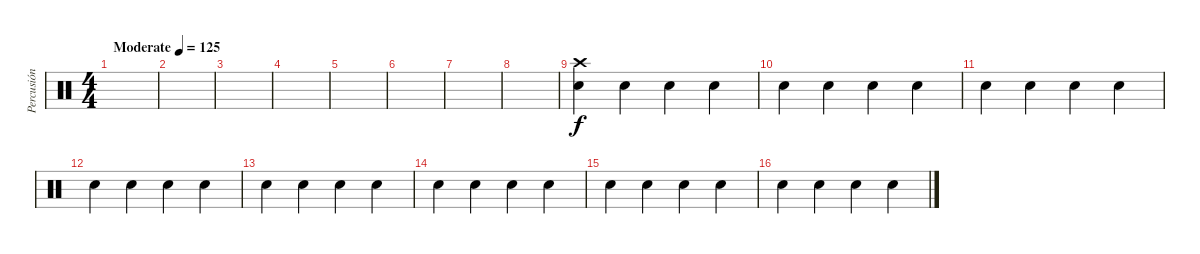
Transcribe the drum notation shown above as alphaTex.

\track ("Percusión" "Percusión") {instrument percussion}
\staff {score}
\articulation defaults
\ts (4 4)
\tempo (125 "Moderate")
\clef neutral
\ks c
|
|
|
|
|
|
|
|
("Electric Snare (hit)" "Crash high (hit)").4 "Electric Snare (hit)".4 "Electric Snare (hit)".4 "Electric Snare (hit)".4 |
"Electric Snare (hit)".4 "Electric Snare (hit)".4 "Electric Snare (hit)".4 "Electric Snare (hit)".4 |
"Electric Snare (hit)".4 "Electric Snare (hit)".4 "Electric Snare (hit)".4 "Electric Snare (hit)".4 |
"Electric Snare (hit)".4 "Electric Snare (hit)".4 "Electric Snare (hit)".4 "Electric Snare (hit)".4 |
"Electric Snare (hit)".4 "Electric Snare (hit)".4 "Electric Snare (hit)".4 "Electric Snare (hit)".4 |
"Electric Snare (hit)".4 "Electric Snare (hit)".4 "Electric Snare (hit)".4 "Electric Snare (hit)".4 |
"Electric Snare (hit)".4 "Electric Snare (hit)".4 "Electric Snare (hit)".4 "Electric Snare (hit)".4 |
"Electric Snare (hit)".4 "Electric Snare (hit)".4 "Electric Snare (hit)".4 "Electric Snare (hit)".4
